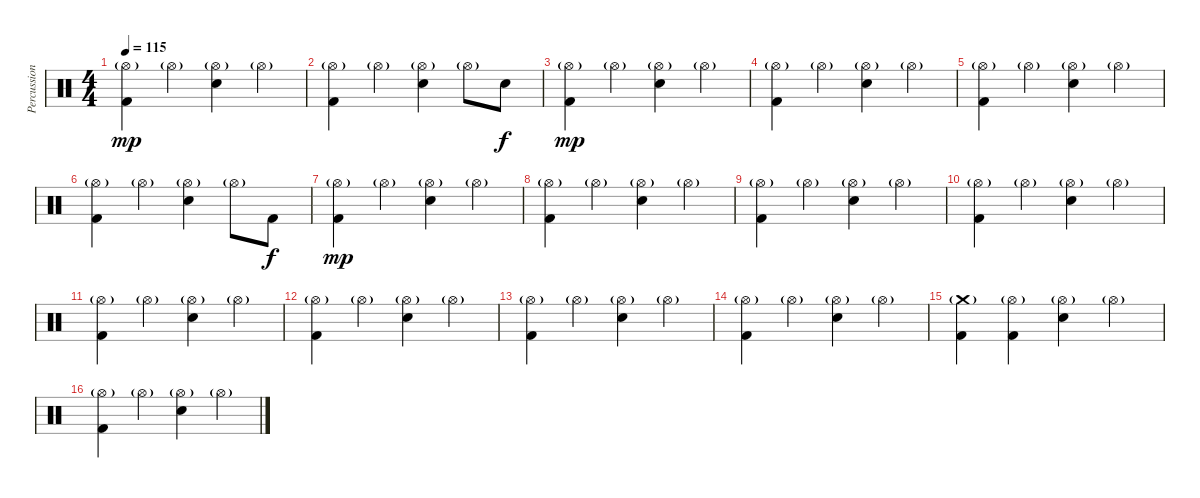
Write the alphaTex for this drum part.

\track ("Percussioni" "Percussion") {instrument percussion}
\staff {score}
\articulation defaults
\ts (4 4)
\tempo 115
\clef neutral
\ks c
("Hi-Hat (open)"{g} "Kick (hit) 2").4{dy mp} "Hi-Hat (open)"{g}.4 ("Hi-Hat (open)"{g} "Electric Snare (hit)").4 "Hi-Hat (open)"{g}.4 |
("Hi-Hat (open)"{g} "Kick (hit) 2").4 "Hi-Hat (open)"{g}.4 ("Hi-Hat (open)"{g} "Electric Snare (hit)").4 "Hi-Hat (open)"{g}.8 "Electric Snare (hit)".8{dy f} |
("Hi-Hat (open)"{g} "Kick (hit) 2").4{dy mp} "Hi-Hat (open)"{g}.4 ("Hi-Hat (open)"{g} "Electric Snare (hit)").4 "Hi-Hat (open)"{g}.4 |
("Hi-Hat (open)"{g} "Kick (hit) 2").4 "Hi-Hat (open)"{g}.4 ("Hi-Hat (open)"{g} "Electric Snare (hit)").4 "Hi-Hat (open)"{g}.4 |
("Hi-Hat (open)"{g} "Kick (hit) 2").4 "Hi-Hat (open)"{g}.4 ("Hi-Hat (open)"{g} "Electric Snare (hit)").4 "Hi-Hat (open)"{g}.4 |
("Hi-Hat (open)"{g} "Kick (hit) 2").4 "Hi-Hat (open)"{g}.4 ("Hi-Hat (open)"{g} "Electric Snare (hit)").4 "Hi-Hat (open)"{g}.8 "Kick (hit) 2".8{dy f} |
("Hi-Hat (open)"{g} "Kick (hit) 2").4{dy mp} "Hi-Hat (open)"{g}.4 ("Hi-Hat (open)"{g} "Electric Snare (hit)").4 "Hi-Hat (open)"{g}.4 |
("Hi-Hat (open)"{g} "Kick (hit) 2").4 "Hi-Hat (open)"{g}.4 ("Hi-Hat (open)"{g} "Electric Snare (hit)").4 "Hi-Hat (open)"{g}.4 |
("Hi-Hat (open)"{g} "Kick (hit) 2").4 "Hi-Hat (open)"{g}.4 ("Hi-Hat (open)"{g} "Electric Snare (hit)").4 "Hi-Hat (open)"{g}.4 |
("Hi-Hat (open)"{g} "Kick (hit) 2").4 "Hi-Hat (open)"{g}.4 ("Hi-Hat (open)"{g} "Electric Snare (hit)").4 "Hi-Hat (open)"{g}.4 |
("Hi-Hat (open)"{g} "Kick (hit) 2").4 "Hi-Hat (open)"{g}.4 ("Hi-Hat (open)"{g} "Electric Snare (hit)").4 "Hi-Hat (open)"{g}.4 |
("Hi-Hat (open)"{g} "Kick (hit) 2").4 "Hi-Hat (open)"{g}.4 ("Hi-Hat (open)"{g} "Electric Snare (hit)").4 "Hi-Hat (open)"{g}.4 |
("Hi-Hat (open)"{g} "Kick (hit) 2").4 "Hi-Hat (open)"{g}.4 ("Hi-Hat (open)"{g} "Electric Snare (hit)").4 "Hi-Hat (open)"{g}.4 |
("Hi-Hat (open)"{g} "Kick (hit) 2").4 "Hi-Hat (open)"{g}.4 ("Hi-Hat (open)"{g} "Electric Snare (hit)").4 "Hi-Hat (open)"{g}.4 |
("Crash medium (hit)"{g} "Kick (hit) 2").4 ("Hi-Hat (open)"{g} "Kick (hit) 2").4 ("Hi-Hat (open)"{g} "Electric Snare (hit)").4 "Hi-Hat (open)"{g}.4 |
("Hi-Hat (open)"{g} "Kick (hit) 2").4 "Hi-Hat (open)"{g}.4 ("Hi-Hat (open)"{g} "Electric Snare (hit)").4 "Hi-Hat (open)"{g}.4
